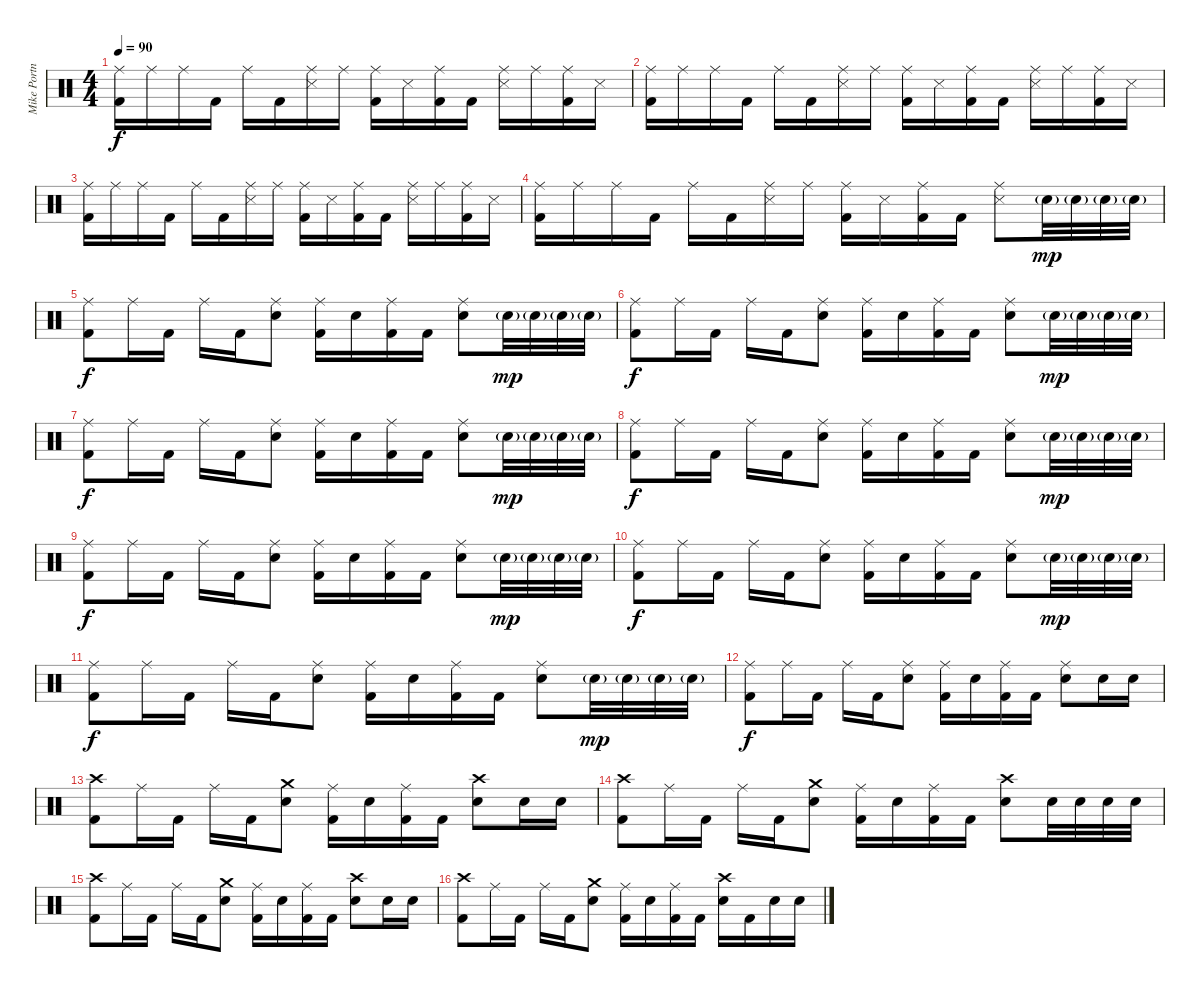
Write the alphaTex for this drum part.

\track ("Mike Portnoy" "Mike Portn") {instrument percussion}
\staff {score}
\articulation defaults
\ts (4 4)
\tempo 90
\clef neutral
\ks c
("Ride (middle)" "Kick (hit) 2").16{dy f} "Ride (middle)".16 "Ride (middle)".16 "Kick (hit) 2".16 "Ride (middle)".16 "Kick (hit) 2".16 ("Ride (middle)" "Snare (side stick) 3").16 "Ride (middle)".16 ("Ride (middle)" "Kick (hit) 2").16 "Snare (side stick) 3".16 ("Ride (middle)" "Kick (hit) 2").16 "Kick (hit) 2".16 ("Ride (middle)" "Snare (side stick) 3").16 "Ride (middle)".16 ("Ride (middle)" "Kick (hit) 2").16 "Snare (side stick) 3".16 |
("Ride (middle)" "Kick (hit) 2").16 "Ride (middle)".16 "Ride (middle)".16 "Kick (hit) 2".16 "Ride (middle)".16 "Kick (hit) 2".16 ("Ride (middle)" "Snare (side stick) 3").16 "Ride (middle)".16 ("Ride (middle)" "Kick (hit) 2").16 "Snare (side stick) 3".16 ("Ride (middle)" "Kick (hit) 2").16 "Kick (hit) 2".16 ("Ride (middle)" "Snare (side stick) 3").16 "Ride (middle)".16 ("Ride (middle)" "Kick (hit) 2").16 "Snare (side stick) 3".16 |
("Ride (middle)" "Kick (hit) 2").16 "Ride (middle)".16 "Ride (middle)".16 "Kick (hit) 2".16 "Ride (middle)".16 "Kick (hit) 2".16 ("Ride (middle)" "Snare (side stick) 3").16 "Ride (middle)".16 ("Ride (middle)" "Kick (hit) 2").16 "Snare (side stick) 3".16 ("Ride (middle)" "Kick (hit) 2").16 "Kick (hit) 2".16 ("Ride (middle)" "Snare (side stick) 3").16 "Ride (middle)".16 ("Ride (middle)" "Kick (hit) 2").16 "Snare (side stick) 3".16 |
("Ride (middle)" "Kick (hit) 2").16 "Ride (middle)".16 "Ride (middle)".16 "Kick (hit) 2".16 "Ride (middle)".16 "Kick (hit) 2".16 ("Ride (middle)" "Snare (side stick) 3").16 "Ride (middle)".16 ("Ride (middle)" "Kick (hit) 2").16 "Snare (side stick) 3".16 ("Ride (middle)" "Kick (hit) 2").16 "Kick (hit) 2".16 ("Ride (middle)" "Snare (side stick) 3").8 "Snare (hit) 2"{g}.32{dy mp} "Snare (hit) 2"{g}.32 "Snare (hit) 2"{g}.32 "Snare (hit) 2"{g}.32 |
("Ride (middle)" "Kick (hit) 2").8{dy f} "Ride (middle)".16 "Kick (hit) 2".16 "Ride (middle)".16 "Kick (hit) 2".16 ("Ride (middle)" "Snare (hit) 2").8 ("Ride (middle)" "Kick (hit) 2").16 "Snare (hit) 2".16 ("Ride (middle)" "Kick (hit) 2").16 "Kick (hit) 2".16 ("Ride (middle)" "Snare (hit) 2").8 "Snare (hit) 2"{g}.32{dy mp} "Snare (hit) 2"{g}.32 "Snare (hit) 2"{g}.32 "Snare (hit) 2"{g}.32 |
("Ride (middle)" "Kick (hit) 2").8{dy f} "Ride (middle)".16 "Kick (hit) 2".16 "Ride (middle)".16 "Kick (hit) 2".16 ("Ride (middle)" "Snare (hit) 2").8 ("Ride (middle)" "Kick (hit) 2").16 "Snare (hit) 2".16 ("Ride (middle)" "Kick (hit) 2").16 "Kick (hit) 2".16 ("Ride (middle)" "Snare (hit) 2").8 "Snare (hit) 2"{g}.32{dy mp} "Snare (hit) 2"{g}.32 "Snare (hit) 2"{g}.32 "Snare (hit) 2"{g}.32 |
("Ride (middle)" "Kick (hit) 2").8{dy f} "Ride (middle)".16 "Kick (hit) 2".16 "Ride (middle)".16 "Kick (hit) 2".16 ("Ride (middle)" "Snare (hit) 2").8 ("Ride (middle)" "Kick (hit) 2").16 "Snare (hit) 2".16 ("Ride (middle)" "Kick (hit) 2").16 "Kick (hit) 2".16 ("Ride (middle)" "Snare (hit) 2").8 "Snare (hit) 2"{g}.32{dy mp} "Snare (hit) 2"{g}.32 "Snare (hit) 2"{g}.32 "Snare (hit) 2"{g}.32 |
("Ride (middle)" "Kick (hit) 2").8{dy f} "Ride (middle)".16 "Kick (hit) 2".16 "Ride (middle)".16 "Kick (hit) 2".16 ("Ride (middle)" "Snare (hit) 2").8 ("Ride (middle)" "Kick (hit) 2").16 "Snare (hit) 2".16 ("Ride (middle)" "Kick (hit) 2").16 "Kick (hit) 2".16 ("Ride (middle)" "Snare (hit) 2").8 "Snare (hit) 2"{g}.32{dy mp} "Snare (hit) 2"{g}.32 "Snare (hit) 2"{g}.32 "Snare (hit) 2"{g}.32 |
("Ride (middle)" "Kick (hit) 2").8{dy f} "Ride (middle)".16 "Kick (hit) 2".16 "Ride (middle)".16 "Kick (hit) 2".16 ("Ride (middle)" "Snare (hit) 2").8 ("Ride (middle)" "Kick (hit) 2").16 "Snare (hit) 2".16 ("Ride (middle)" "Kick (hit) 2").16 "Kick (hit) 2".16 ("Ride (middle)" "Snare (hit) 2").8 "Snare (hit) 2"{g}.32{dy mp} "Snare (hit) 2"{g}.32 "Snare (hit) 2"{g}.32 "Snare (hit) 2"{g}.32 |
("Ride (middle)" "Kick (hit) 2").8{dy f} "Ride (middle)".16 "Kick (hit) 2".16 "Ride (middle)".16 "Kick (hit) 2".16 ("Ride (middle)" "Snare (hit) 2").8 ("Ride (middle)" "Kick (hit) 2").16 "Snare (hit) 2".16 ("Ride (middle)" "Kick (hit) 2").16 "Kick (hit) 2".16 ("Ride (middle)" "Snare (hit) 2").8 "Snare (hit) 2"{g}.32{dy mp} "Snare (hit) 2"{g}.32 "Snare (hit) 2"{g}.32 "Snare (hit) 2"{g}.32 |
("Ride (middle)" "Kick (hit) 2").8{dy f} "Ride (middle)".16 "Kick (hit) 2".16 "Ride (middle)".16 "Kick (hit) 2".16 ("Ride (middle)" "Snare (hit) 2").8 ("Ride (middle)" "Kick (hit) 2").16 "Snare (hit) 2".16 ("Ride (middle)" "Kick (hit) 2").16 "Kick (hit) 2".16 ("Ride (middle)" "Snare (hit) 2").8 "Snare (hit) 2"{g}.32{dy mp} "Snare (hit) 2"{g}.32 "Snare (hit) 2"{g}.32 "Snare (hit) 2"{g}.32 |
("Ride (middle)" "Kick (hit) 2").8{dy f} "Ride (middle)".16 "Kick (hit) 2".16 "Ride (middle)".16 "Kick (hit) 2".16 ("Ride (middle)" "Snare (hit) 2").8 ("Ride (middle)" "Kick (hit) 2").16 "Snare (hit) 2".16 ("Ride (middle)" "Kick (hit) 2").16 "Kick (hit) 2".16 ("Ride (middle)" "Snare (hit) 2").8 "Snare (hit) 2".16 "Snare (hit) 2".16 |
("Crash high (hit)" "Kick (hit) 2").8 "Ride (middle)".16 "Kick (hit) 2".16 "Ride (middle)".16 "Kick (hit) 2".16 ("Crash medium (hit)" "Snare (hit) 2").8 ("Ride (middle)" "Kick (hit) 2").16 "Snare (hit) 2".16 ("Ride (middle)" "Kick (hit) 2").16 "Kick (hit) 2".16 ("Crash high (hit)" "Snare (hit) 2").8 "Snare (hit) 2".16 "Snare (hit) 2".16 |
("Crash high (hit)" "Kick (hit) 2").8 "Ride (middle)".16 "Kick (hit) 2".16 "Ride (middle)".16 "Kick (hit) 2".16 ("Crash medium (hit)" "Snare (hit) 2").8 ("Ride (middle)" "Kick (hit) 2").16 "Snare (hit) 2".16 ("Ride (middle)" "Kick (hit) 2").16 "Kick (hit) 2".16 ("Crash high (hit)" "Snare (hit) 2").8 "Snare (hit) 2".32 "Snare (hit) 2".32 "Snare (hit) 2".32 "Snare (hit) 2".32 |
("Crash high (hit)" "Kick (hit) 2").8 "Ride (middle)".16 "Kick (hit) 2".16 "Ride (middle)".16 "Kick (hit) 2".16 ("Crash medium (hit)" "Snare (hit) 2").8 ("Ride (middle)" "Kick (hit) 2").16 "Snare (hit) 2".16 ("Ride (middle)" "Kick (hit) 2").16 "Kick (hit) 2".16 ("Crash high (hit)" "Snare (hit) 2").8 "Snare (hit) 2".16 "Snare (hit) 2".16 |
("Crash high (hit)" "Kick (hit) 2").8 "Ride (middle)".16 "Kick (hit) 2".16 "Ride (middle)".16 "Kick (hit) 2".16 ("Crash medium (hit)" "Snare (hit) 2").8 ("Ride (middle)" "Kick (hit) 2").16 "Snare (hit) 2".16 ("Ride (middle)" "Kick (hit) 2").16 "Kick (hit) 2".16 ("Crash high (hit)" "Snare (hit) 2").16 "Kick (hit) 2".16 "Snare (hit) 2".16 "Snare (hit) 2".16
